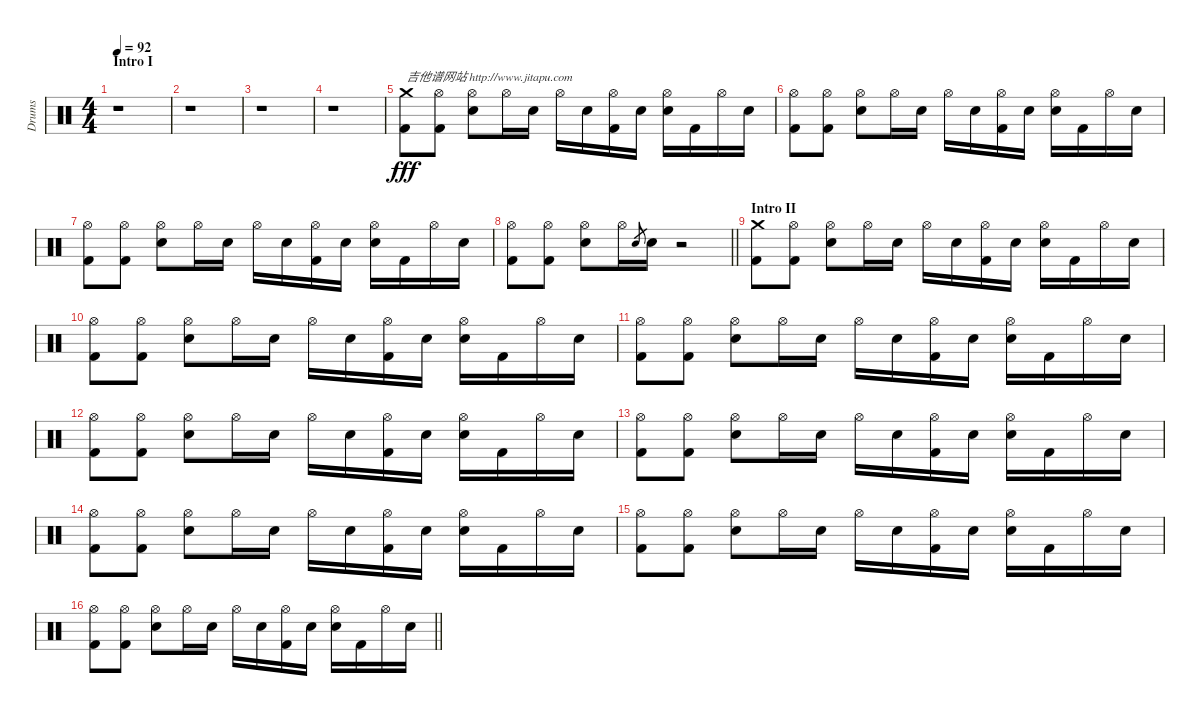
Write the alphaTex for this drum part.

\track ("Drums" "Drums") {instrument percussion}
\staff {score}
\articulation defaults
\ts (4 4)
\section ("" "Intro I")
\tempo 92
\clef neutral
\ks c
r.1{dy fff} |
r.1 |
r.1 |
r.1 |
("Crash medium (hit)" "Kick (hit) 2").8{txt "吉他谱网站 http://www.jitapu.com"} ("Hi-Hat (open)" "Kick (hit) 2").8 ("Hi-Hat (open)" "Snare (hit) 2").8 "Hi-Hat (open)".16 "Snare (hit) 2".16 "Hi-Hat (open)".16 "Snare (hit) 2".16 ("Hi-Hat (open)" "Kick (hit) 2").16 "Snare (hit) 2".16 ("Hi-Hat (open)" "Snare (hit) 2").16 "Kick (hit) 2".16 "Hi-Hat (open)".16 "Snare (hit) 2".16 |
("Hi-Hat (open)" "Kick (hit) 2").8 ("Hi-Hat (open)" "Kick (hit) 2").8 ("Hi-Hat (open)" "Snare (hit) 2").8 "Hi-Hat (open)".16 "Snare (hit) 2".16 "Hi-Hat (open)".16 "Snare (hit) 2".16 ("Hi-Hat (open)" "Kick (hit) 2").16 "Snare (hit) 2".16 ("Hi-Hat (open)" "Snare (hit) 2").16 "Kick (hit) 2".16 "Hi-Hat (open)".16 "Snare (hit) 2".16 |
("Hi-Hat (open)" "Kick (hit) 2").8 ("Hi-Hat (open)" "Kick (hit) 2").8 ("Hi-Hat (open)" "Snare (hit) 2").8 "Hi-Hat (open)".16 "Snare (hit) 2".16 "Hi-Hat (open)".16 "Snare (hit) 2".16 ("Hi-Hat (open)" "Kick (hit) 2").16 "Snare (hit) 2".16 ("Hi-Hat (open)" "Snare (hit) 2").16 "Kick (hit) 2".16 "Hi-Hat (open)".16 "Snare (hit) 2".16 |
\barLineRight lightlight
("Hi-Hat (open)" "Kick (hit) 2").8 ("Hi-Hat (open)" "Kick (hit) 2").8 ("Hi-Hat (open)" "Snare (hit) 2").8 "Hi-Hat (open)".16 "Snare (hit) 2".8{gr} "Snare (hit) 2".16 r.2 |
\section ("" "Intro II")
("Crash medium (hit)" "Kick (hit) 2").8 ("Hi-Hat (open)" "Kick (hit) 2").8 ("Hi-Hat (open)" "Snare (hit) 2").8 "Hi-Hat (open)".16 "Snare (hit) 2".16 "Hi-Hat (open)".16 "Snare (hit) 2".16 ("Hi-Hat (open)" "Kick (hit) 2").16 "Snare (hit) 2".16 ("Hi-Hat (open)" "Snare (hit) 2").16 "Kick (hit) 2".16 "Hi-Hat (open)".16 "Snare (hit) 2".16 |
("Hi-Hat (open)" "Kick (hit) 2").8 ("Hi-Hat (open)" "Kick (hit) 2").8 ("Hi-Hat (open)" "Snare (hit) 2").8 "Hi-Hat (open)".16 "Snare (hit) 2".16 "Hi-Hat (open)".16 "Snare (hit) 2".16 ("Hi-Hat (open)" "Kick (hit) 2").16 "Snare (hit) 2".16 ("Hi-Hat (open)" "Snare (hit) 2").16 "Kick (hit) 2".16 "Hi-Hat (open)".16 "Snare (hit) 2".16 |
("Hi-Hat (open)" "Kick (hit) 2").8 ("Hi-Hat (open)" "Kick (hit) 2").8 ("Hi-Hat (open)" "Snare (hit) 2").8 "Hi-Hat (open)".16 "Snare (hit) 2".16 "Hi-Hat (open)".16 "Snare (hit) 2".16 ("Hi-Hat (open)" "Kick (hit) 2").16 "Snare (hit) 2".16 ("Hi-Hat (open)" "Snare (hit) 2").16 "Kick (hit) 2".16 "Hi-Hat (open)".16 "Snare (hit) 2".16 |
("Hi-Hat (open)" "Kick (hit) 2").8 ("Hi-Hat (open)" "Kick (hit) 2").8 ("Hi-Hat (open)" "Snare (hit) 2").8 "Hi-Hat (open)".16 "Snare (hit) 2".16 "Hi-Hat (open)".16 "Snare (hit) 2".16 ("Hi-Hat (open)" "Kick (hit) 2").16 "Snare (hit) 2".16 ("Hi-Hat (open)" "Snare (hit) 2").16 "Kick (hit) 2".16 "Hi-Hat (open)".16 "Snare (hit) 2".16 |
("Hi-Hat (open)" "Kick (hit) 2").8 ("Hi-Hat (open)" "Kick (hit) 2").8 ("Hi-Hat (open)" "Snare (hit) 2").8 "Hi-Hat (open)".16 "Snare (hit) 2".16 "Hi-Hat (open)".16 "Snare (hit) 2".16 ("Hi-Hat (open)" "Kick (hit) 2").16 "Snare (hit) 2".16 ("Hi-Hat (open)" "Snare (hit) 2").16 "Kick (hit) 2".16 "Hi-Hat (open)".16 "Snare (hit) 2".16 |
("Hi-Hat (open)" "Kick (hit) 2").8 ("Hi-Hat (open)" "Kick (hit) 2").8 ("Hi-Hat (open)" "Snare (hit) 2").8 "Hi-Hat (open)".16 "Snare (hit) 2".16 "Hi-Hat (open)".16 "Snare (hit) 2".16 ("Hi-Hat (open)" "Kick (hit) 2").16 "Snare (hit) 2".16 ("Hi-Hat (open)" "Snare (hit) 2").16 "Kick (hit) 2".16 "Hi-Hat (open)".16 "Snare (hit) 2".16 |
("Hi-Hat (open)" "Kick (hit) 2").8 ("Hi-Hat (open)" "Kick (hit) 2").8 ("Hi-Hat (open)" "Snare (hit) 2").8 "Hi-Hat (open)".16 "Snare (hit) 2".16 "Hi-Hat (open)".16 "Snare (hit) 2".16 ("Hi-Hat (open)" "Kick (hit) 2").16 "Snare (hit) 2".16 ("Hi-Hat (open)" "Snare (hit) 2").16 "Kick (hit) 2".16 "Hi-Hat (open)".16 "Snare (hit) 2".16 |
\barLineRight lightlight
("Hi-Hat (open)" "Kick (hit) 2").8 ("Hi-Hat (open)" "Kick (hit) 2").8 ("Hi-Hat (open)" "Snare (hit) 2").8 "Hi-Hat (open)".16 "Snare (hit) 2".16 "Hi-Hat (open)".16 "Snare (hit) 2".16 ("Hi-Hat (open)" "Kick (hit) 2").16 "Snare (hit) 2".16 ("Hi-Hat (open)" "Snare (hit) 2").16 "Kick (hit) 2".16 "Hi-Hat (open)".16 "Snare (hit) 2".16
